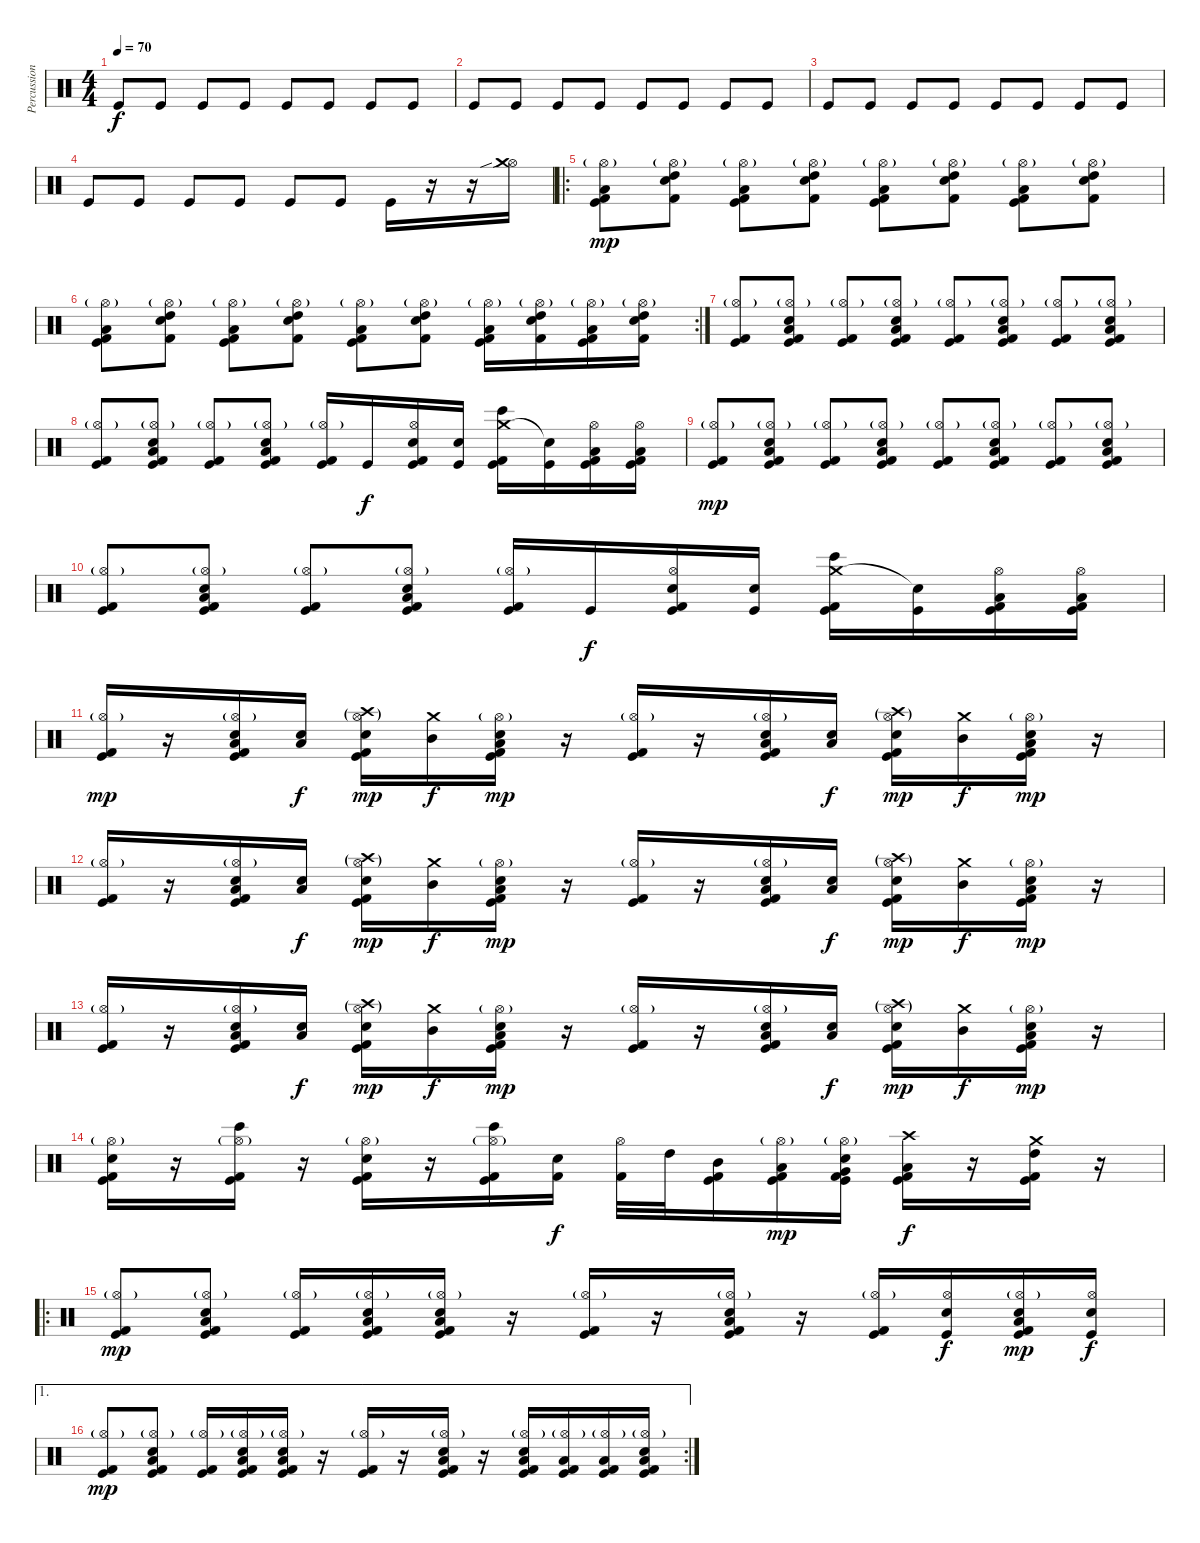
\track ("Percussion" "Percussion") {instrument percussion}
\staff {score}
\articulation defaults
\ts (4 4)
\tempo 70
\clef neutral
\ks c "Kick (hit)".8{dy f} "Kick (hit)".8 "Kick (hit)".8 "Kick (hit)".8 "Kick (hit)".8 "Kick (hit)".8 "Kick (hit)".8 "Kick (hit)".8
|
"Kick (hit)".8 "Kick (hit)".8 "Kick (hit)".8 "Kick (hit)".8 "Kick (hit)".8 "Kick (hit)".8 "Kick (hit)".8 "Kick (hit)".8 |
"Kick (hit)".8 "Kick (hit)".8 "Kick (hit)".8 "Kick (hit)".8 "Kick (hit)".8 "Kick (hit)".8 "Kick (hit)".8 "Kick (hit)".8 |
"Kick (hit)".8 "Kick (hit)".8 "Kick (hit)".8 "Kick (hit)".8 "Kick (hit)".8 "Kick (hit)".8 "Kick (hit)".16 r.16 r.16 ("Hi-Hat (open)"{sib} "Crash medium (hit)"{sib}).16 |
\ro
("Hi-Hat (open)"{g} "Low Floor Tom (hit)" "Kick (hit)" "Kick (hit) 2").8{dy mp} ("Hi-Hat (open)"{g} "Snare (hit) 2" "High Tom (hit)" "Kick (hit) 2").8 ("Hi-Hat (open)"{g} "Low Floor Tom (hit)" "Kick (hit)" "Kick (hit) 2").8 ("Hi-Hat (open)"{g} "Snare (hit) 2" "High Tom (hit)" "Kick (hit) 2").8 ("Hi-Hat (open)"{g} "Low Floor Tom (hit)" "Kick (hit)" "Kick (hit) 2").8 ("Hi-Hat (open)"{g} "Snare (hit) 2" "High Tom (hit)" "Kick (hit) 2").8 ("Hi-Hat (open)"{g} "Low Floor Tom (hit)" "Kick (hit)" "Kick (hit) 2").8 ("Hi-Hat (open)"{g} "Snare (hit) 2" "High Tom (hit)" "Kick (hit) 2").8 |
\rc 2
("Hi-Hat (open)"{g} "Low Floor Tom (hit)" "Kick (hit)" "Kick (hit) 2").8 ("Hi-Hat (open)"{g} "Snare (hit) 2" "High Tom (hit)" "Kick (hit) 2").8 ("Hi-Hat (open)"{g} "Low Floor Tom (hit)" "Kick (hit)" "Kick (hit) 2").8 ("Hi-Hat (open)"{g} "Snare (hit) 2" "High Tom (hit)" "Kick (hit) 2").8 ("Hi-Hat (open)"{g} "Low Floor Tom (hit)" "Kick (hit)" "Kick (hit) 2").8 ("Hi-Hat (open)"{g} "Snare (hit) 2" "High Tom (hit)" "Kick (hit) 2").8 ("Hi-Hat (open)"{g} "Low Floor Tom (hit)" "Kick (hit)" "Kick (hit) 2").16 ("Hi-Hat (open)"{g} "Snare (hit) 2" "High Tom (hit)" "Kick (hit) 2").16 ("Hi-Hat (open)"{g} "Low Floor Tom (hit)" "Kick (hit)" "Kick (hit) 2").16 ("Hi-Hat (open)"{g} "Snare (hit) 2" "High Tom (hit)" "Kick (hit) 2").16 |
("Hi-Hat (open)"{g} "Kick (hit)" "Kick (hit) 2").8 ("Hi-Hat (open)"{g} "Snare (hit) 2" "Low Floor Tom (hit)" "Kick (hit)" "Kick (hit) 2").8 ("Hi-Hat (open)"{g} "Kick (hit)" "Kick (hit) 2").8 ("Hi-Hat (open)"{g} "Snare (hit) 2" "Low Floor Tom (hit)" "Kick (hit)" "Kick (hit) 2").8 ("Hi-Hat (open)"{g} "Kick (hit)" "Kick (hit) 2").8 ("Hi-Hat (open)"{g} "Snare (hit) 2" "Low Floor Tom (hit)" "Kick (hit)" "Kick (hit) 2").8 ("Hi-Hat (open)"{g} "Kick (hit)" "Kick (hit) 2").8 ("Hi-Hat (open)"{g} "Snare (hit) 2" "Low Floor Tom (hit)" "Kick (hit)" "Kick (hit) 2").8 |
("Hi-Hat (open)"{g} "Kick (hit)" "Kick (hit) 2").8 ("Hi-Hat (open)"{g} "Snare (hit) 2" "Low Floor Tom (hit)" "Kick (hit)" "Kick (hit) 2").8 ("Hi-Hat (open)"{g} "Kick (hit)" "Kick (hit) 2").8 ("Hi-Hat (open)"{g} "Snare (hit) 2" "Low Floor Tom (hit)" "Kick (hit)" "Kick (hit) 2").8 ("Hi-Hat (open)"{g} "Kick (hit)" "Kick (hit) 2").16 "Kick (hit)".16{dy f} ("Hi-Hat (open)" "Snare (hit) 2" "Kick (hit)" "Kick (hit) 2").16 ("Snare (hit) 2" "Kick (hit)").16 ("Crash medium (hit)" "Bongo High (hit)" "Kick (hit)" "Kick (hit) 2").16 ("Snare (hit)"{t} "Kick (hit)").16 ("Hi-Hat (open)" "Low Floor Tom (hit)" "Kick (hit) 2" "Kick (hit)").16 ("Hi-Hat (open)" "Low Floor Tom (hit)" "Kick (hit) 2" "Kick (hit)").16 |
("Hi-Hat (open)"{g} "Kick (hit)" "Kick (hit) 2").8{dy mp} ("Hi-Hat (open)"{g} "Snare (hit) 2" "Low Floor Tom (hit)" "Kick (hit)" "Kick (hit) 2").8 ("Hi-Hat (open)"{g} "Kick (hit)" "Kick (hit) 2").8 ("Hi-Hat (open)"{g} "Snare (hit) 2" "Low Floor Tom (hit)" "Kick (hit)" "Kick (hit) 2").8 ("Hi-Hat (open)"{g} "Kick (hit)" "Kick (hit) 2").8 ("Hi-Hat (open)"{g} "Snare (hit) 2" "Low Floor Tom (hit)" "Kick (hit)" "Kick (hit) 2").8 ("Hi-Hat (open)"{g} "Kick (hit)" "Kick (hit) 2").8 ("Hi-Hat (open)"{g} "Snare (hit) 2" "Low Floor Tom (hit)" "Kick (hit)" "Kick (hit) 2").8 |
("Hi-Hat (open)"{g} "Kick (hit)" "Kick (hit) 2").8 ("Hi-Hat (open)"{g} "Snare (hit) 2" "Low Floor Tom (hit)" "Kick (hit)" "Kick (hit) 2").8 ("Hi-Hat (open)"{g} "Kick (hit)" "Kick (hit) 2").8 ("Hi-Hat (open)"{g} "Snare (hit) 2" "Low Floor Tom (hit)" "Kick (hit)" "Kick (hit) 2").8 ("Hi-Hat (open)"{g} "Kick (hit)" "Kick (hit) 2").16 "Kick (hit)".16{dy f} ("Hi-Hat (open)" "Snare (hit) 2" "Kick (hit)" "Kick (hit) 2").16 ("Snare (hit) 2" "Kick (hit)").16 ("Crash medium (hit)" "Bongo High (hit)" "Kick (hit)" "Kick (hit) 2").16 ("Snare (hit)"{t} "Kick (hit)").16 ("Hi-Hat (open)" "Low Floor Tom (hit)" "Kick (hit) 2" "Kick (hit)").16 ("Hi-Hat (open)" "Low Floor Tom (hit)" "Kick (hit) 2" "Kick (hit)").16 |
("Hi-Hat (open)"{g} "Kick (hit)" "Kick (hit) 2").16{dy mp} r.16 ("Hi-Hat (open)"{g} "Low Floor Tom (hit)" "Snare (hit) 2" "Kick (hit)" "Kick (hit) 2").16 ("Snare (hit) 2" "Low Tom (hit)").16{dy f} ("Hi-Hat (open)"{g} "Crash high (hit)"{g} "Snare (hit) 2" "Kick (hit)" "Kick (hit) 2").16{dy mp} ("Crash medium (hit)" "Mid Tom (hit)").16{dy f} ("Hi-Hat (open)"{g} "Low Floor Tom (hit)" "Snare (hit) 2" "Kick (hit)" "Kick (hit) 2").16{dy mp} r.16 ("Hi-Hat (open)"{g} "Kick (hit)" "Kick (hit) 2").16 r.16 ("Hi-Hat (open)"{g} "Low Floor Tom (hit)" "Snare (hit) 2" "Kick (hit)" "Kick (hit) 2").16 ("Snare (hit) 2" "Low Tom (hit)").16{dy f} ("Hi-Hat (open)"{g} "Crash high (hit)"{g} "Snare (hit) 2" "Kick (hit)" "Kick (hit) 2").16{dy mp} ("Crash medium (hit)" "Mid Tom (hit)").16{dy f} ("Hi-Hat (open)"{g} "Low Floor Tom (hit)" "Snare (hit) 2" "Kick (hit)" "Kick (hit) 2").16{dy mp} r.16 |
("Hi-Hat (open)"{g} "Kick (hit)" "Kick (hit) 2").16 r.16 ("Hi-Hat (open)"{g} "Low Floor Tom (hit)" "Snare (hit) 2" "Kick (hit)" "Kick (hit) 2").16 ("Snare (hit) 2" "Low Tom (hit)").16{dy f} ("Hi-Hat (open)"{g} "Crash high (hit)"{g} "Snare (hit) 2" "Kick (hit)" "Kick (hit) 2").16{dy mp} ("Crash medium (hit)" "Mid Tom (hit)").16{dy f} ("Hi-Hat (open)"{g} "Low Floor Tom (hit)" "Snare (hit) 2" "Kick (hit)" "Kick (hit) 2").16{dy mp} r.16 ("Hi-Hat (open)"{g} "Kick (hit)" "Kick (hit) 2").16 r.16 ("Hi-Hat (open)"{g} "Low Floor Tom (hit)" "Snare (hit) 2" "Kick (hit)" "Kick (hit) 2").16 ("Snare (hit) 2" "Low Tom (hit)").16{dy f} ("Hi-Hat (open)"{g} "Crash high (hit)"{g} "Snare (hit) 2" "Kick (hit)" "Kick (hit) 2").16{dy mp} ("Crash medium (hit)" "Mid Tom (hit)").16{dy f} ("Hi-Hat (open)"{g} "Low Floor Tom (hit)" "Snare (hit) 2" "Kick (hit)" "Kick (hit) 2").16{dy mp} r.16 |
("Hi-Hat (open)"{g} "Kick (hit)" "Kick (hit) 2").16 r.16 ("Hi-Hat (open)"{g} "Low Floor Tom (hit)" "Snare (hit) 2" "Kick (hit)" "Kick (hit) 2").16 ("Snare (hit) 2" "Low Tom (hit)").16{dy f} ("Hi-Hat (open)"{g} "Crash high (hit)"{g} "Snare (hit) 2" "Kick (hit)" "Kick (hit) 2").16{dy mp} ("Crash medium (hit)" "Mid Tom (hit)").16{dy f} ("Hi-Hat (open)"{g} "Low Floor Tom (hit)" "Snare (hit) 2" "Kick (hit)" "Kick (hit) 2").16{dy mp} r.16 ("Hi-Hat (open)"{g} "Kick (hit)" "Kick (hit) 2").16 r.16 ("Hi-Hat (open)"{g} "Low Floor Tom (hit)" "Snare (hit) 2" "Kick (hit)" "Kick (hit) 2").16 ("Snare (hit) 2" "Low Tom (hit)").16{dy f} ("Hi-Hat (open)"{g} "Crash high (hit)"{g} "Snare (hit) 2" "Kick (hit)" "Kick (hit) 2").16{dy mp} ("Crash medium (hit)" "Mid Tom (hit)").16{dy f} ("Hi-Hat (open)"{g} "Low Floor Tom (hit)" "Snare (hit) 2" "Kick (hit)" "Kick (hit) 2").16{dy mp} r.16 |
("Hi-Hat (open)"{g} "Snare (hit) 2" "Kick (hit)" "Kick (hit) 2").16 r.16 ("Hi-Hat (open)"{g} "Bongo High (hit)" "Kick (hit)" "Kick (hit) 2").16 r.16 ("Hi-Hat (open)"{g} "Snare (hit) 2" "Kick (hit)" "Kick (hit) 2").16 r.16 ("Hi-Hat (open)"{g} "Bongo High (hit)" "Kick (hit)" "Kick (hit) 2").16 ("Snare (hit) 2" "Kick (hit) 2").16{dy f} ("Hi-Hat (open)" "Kick (hit) 2").32 "High Tom (hit)".32 ("Mid Tom (hit)" "Kick (hit)" "Kick (hit) 2").16 ("Hi-Hat (open)"{g} "Low Tom (hit)" "Kick (hit)" "Kick (hit) 2").16{dy mp} ("Hi-Hat (open)"{g} "Snare (hit) 2" "Very Low Tom (hit)" "Kick (hit)" "Kick (hit) 2").16 ("Crash high (hit)" "Low Floor Tom (hit)" "Kick (hit)" "Kick (hit) 2").16{dy f} r.16 ("Crash medium (hit)" "High Tom (hit)" "Kick (hit) 2" "Kick (hit)").16 r.16 |
\ro
("Hi-Hat (open)"{g} "Kick (hit)" "Kick (hit) 2").8{dy mp} ("Hi-Hat (open)"{g} "Snare (hit) 2" "Low Floor Tom (hit)" "Kick (hit)" "Kick (hit) 2").8 ("Hi-Hat (open)"{g} "Kick (hit)" "Kick (hit) 2").16 ("Hi-Hat (open)"{g} "Snare (hit) 2" "Low Floor Tom (hit)" "Kick (hit)" "Kick (hit) 2").16 ("Hi-Hat (open)"{g} "Snare (hit) 2" "Low Floor Tom (hit)" "Kick (hit)" "Kick (hit) 2").16 r.16 ("Hi-Hat (open)"{g} "Kick (hit)" "Kick (hit) 2").16 r.16 ("Hi-Hat (open)"{g} "Snare (hit) 2" "Low Floor Tom (hit)" "Kick (hit)" "Kick (hit) 2").16 r.16 ("Hi-Hat (open)"{g} "Kick (hit)" "Kick (hit) 2").16 ("Hi-Hat (open)" "Snare (hit) 2" "Kick (hit)").16{dy f} ("Hi-Hat (open)"{g} "Snare (hit) 2" "Low Floor Tom (hit)" "Kick (hit)" "Kick (hit) 2").16{dy mp} ("Hi-Hat (open)" "Snare (hit) 2" "Kick (hit)").16{dy f} |
\ae 1
\rc 2
("Hi-Hat (open)"{g} "Kick (hit)" "Kick (hit) 2").8{dy mp} ("Hi-Hat (open)"{g} "Snare (hit) 2" "Low Floor Tom (hit)" "Kick (hit)" "Kick (hit) 2").8 ("Hi-Hat (open)"{g} "Kick (hit)" "Kick (hit) 2").16 ("Hi-Hat (open)"{g} "Snare (hit) 2" "Low Floor Tom (hit)" "Kick (hit)" "Kick (hit) 2").16 ("Hi-Hat (open)"{g} "Snare (hit) 2" "Low Floor Tom (hit)" "Kick (hit)" "Kick (hit) 2").16 r.16 ("Hi-Hat (open)"{g} "Kick (hit)" "Kick (hit) 2").16 r.16 ("Hi-Hat (open)"{g} "Snare (hit) 2" "Low Floor Tom (hit)" "Kick (hit)" "Kick (hit) 2").16 r.16 ("Hi-Hat (open)"{g} "Snare (hit) 2" "Low Floor Tom (hit)" "Kick (hit)" "Kick (hit) 2").16 ("Hi-Hat (open)"{g} "Low Tom (hit)" "Kick (hit)" "Kick (hit) 2").16 ("Hi-Hat (open)"{g} "Low Floor Tom (hit)" "Kick (hit)" "Kick (hit) 2").16 ("Hi-Hat (open)"{g} "Snare (hit) 2" "Low Floor Tom (hit)" "Kick (hit)" "Kick (hit) 2").16
